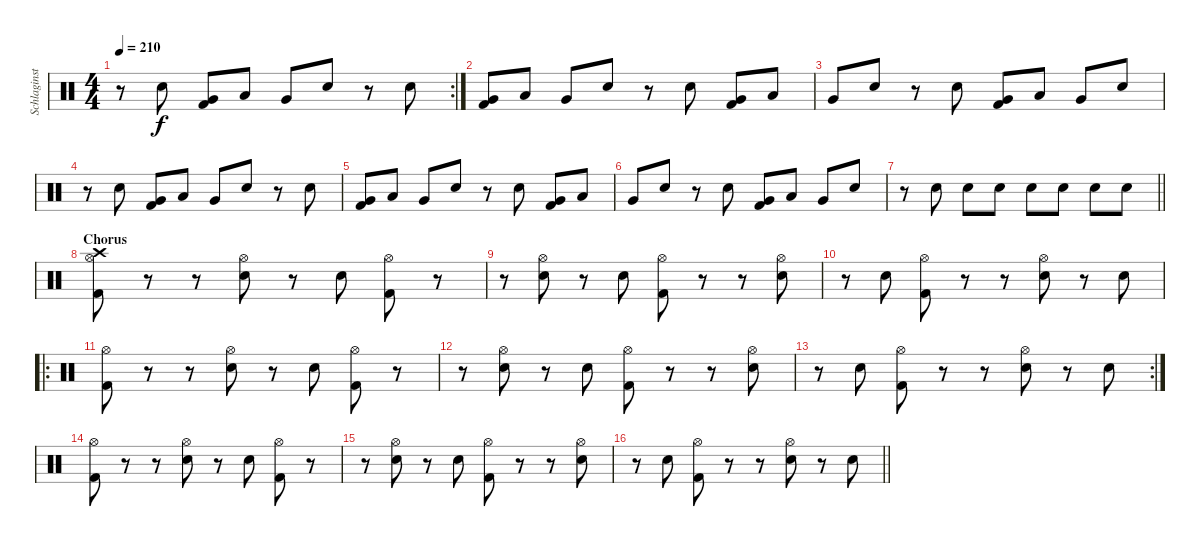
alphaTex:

\track ("Schlaginstrumente - Auswahl" "Schlaginst") {instrument percussion}
\staff {score}
\articulation defaults
\rc 2
\ts (4 4)
\tempo 210
\clef neutral
\ks c
r.8{dy f} "Electric Snare (hit)".8 ("Kick (hit) 2" "Very Low Tom (hit)").8 "Low Tom (hit)".8 "Very Low Tom (hit)".8 "Electric Snare (hit)".8 r.8 "Electric Snare (hit)".8 |
("Kick (hit) 2" "Very Low Tom (hit)").8 "Low Tom (hit)".8 "Very Low Tom (hit)".8 "Electric Snare (hit)".8 r.8 "Electric Snare (hit)".8 ("Kick (hit) 2" "Very Low Tom (hit)").8 "Low Tom (hit)".8 |
"Very Low Tom (hit)".8 "Electric Snare (hit)".8 r.8 "Electric Snare (hit)".8 ("Kick (hit) 2" "Very Low Tom (hit)").8 "Low Tom (hit)".8 "Very Low Tom (hit)".8 "Electric Snare (hit)".8 |
r.8 "Electric Snare (hit)".8 ("Kick (hit) 2" "Very Low Tom (hit)").8 "Low Tom (hit)".8 "Very Low Tom (hit)".8 "Electric Snare (hit)".8 r.8 "Electric Snare (hit)".8 |
("Kick (hit) 2" "Very Low Tom (hit)").8 "Low Tom (hit)".8 "Very Low Tom (hit)".8 "Electric Snare (hit)".8 r.8 "Electric Snare (hit)".8 ("Kick (hit) 2" "Very Low Tom (hit)").8 "Low Tom (hit)".8 |
"Very Low Tom (hit)".8 "Electric Snare (hit)".8 r.8 "Electric Snare (hit)".8 ("Kick (hit) 2" "Very Low Tom (hit)").8 "Low Tom (hit)".8 "Very Low Tom (hit)".8 "Electric Snare (hit)".8 |
\barLineRight lightlight
r.8 "Electric Snare (hit)".8 "Electric Snare (hit)".8 "Electric Snare (hit)".8 "Electric Snare (hit)".8 "Electric Snare (hit)".8 "Electric Snare (hit)".8 "Electric Snare (hit)".8 |
\section ("" "Chorus")
("Crash high (hit)" "Hi-Hat (open)" "Kick (hit) 2").8 r.8 r.8 ("Hi-Hat (open)" "Electric Snare (hit)").8 r.8 "Electric Snare (hit)".8 ("Hi-Hat (open)" "Kick (hit) 2").8 r.8 |
r.8 ("Hi-Hat (open)" "Electric Snare (hit)").8 r.8 "Electric Snare (hit)".8 ("Hi-Hat (open)" "Kick (hit) 2").8 r.8 r.8 ("Hi-Hat (open)" "Electric Snare (hit)").8 |
r.8 "Electric Snare (hit)".8 ("Hi-Hat (open)" "Kick (hit) 2").8 r.8 r.8 ("Hi-Hat (open)" "Electric Snare (hit)").8 r.8 "Electric Snare (hit)".8 |
\ro
("Hi-Hat (open)" "Kick (hit) 2").8 r.8 r.8 ("Hi-Hat (open)" "Electric Snare (hit)").8 r.8 "Electric Snare (hit)".8 ("Hi-Hat (open)" "Kick (hit) 2").8 r.8 |
r.8 ("Hi-Hat (open)" "Electric Snare (hit)").8 r.8 "Electric Snare (hit)".8 ("Hi-Hat (open)" "Kick (hit) 2").8 r.8 r.8 ("Hi-Hat (open)" "Electric Snare (hit)").8 |
\rc 2
r.8 "Electric Snare (hit)".8 ("Hi-Hat (open)" "Kick (hit) 2").8 r.8 r.8 ("Hi-Hat (open)" "Electric Snare (hit)").8 r.8 "Electric Snare (hit)".8 |
("Hi-Hat (open)" "Kick (hit) 2").8 r.8 r.8 ("Hi-Hat (open)" "Electric Snare (hit)").8 r.8 "Electric Snare (hit)".8 ("Hi-Hat (open)" "Kick (hit) 2").8 r.8 |
r.8 ("Hi-Hat (open)" "Electric Snare (hit)").8 r.8 "Electric Snare (hit)".8 ("Hi-Hat (open)" "Kick (hit) 2").8 r.8 r.8 ("Hi-Hat (open)" "Electric Snare (hit)").8 |
\barLineRight lightlight
r.8 "Electric Snare (hit)".8 ("Hi-Hat (open)" "Kick (hit) 2").8 r.8 r.8 ("Hi-Hat (open)" "Electric Snare (hit)").8 r.8 "Electric Snare (hit)".8
